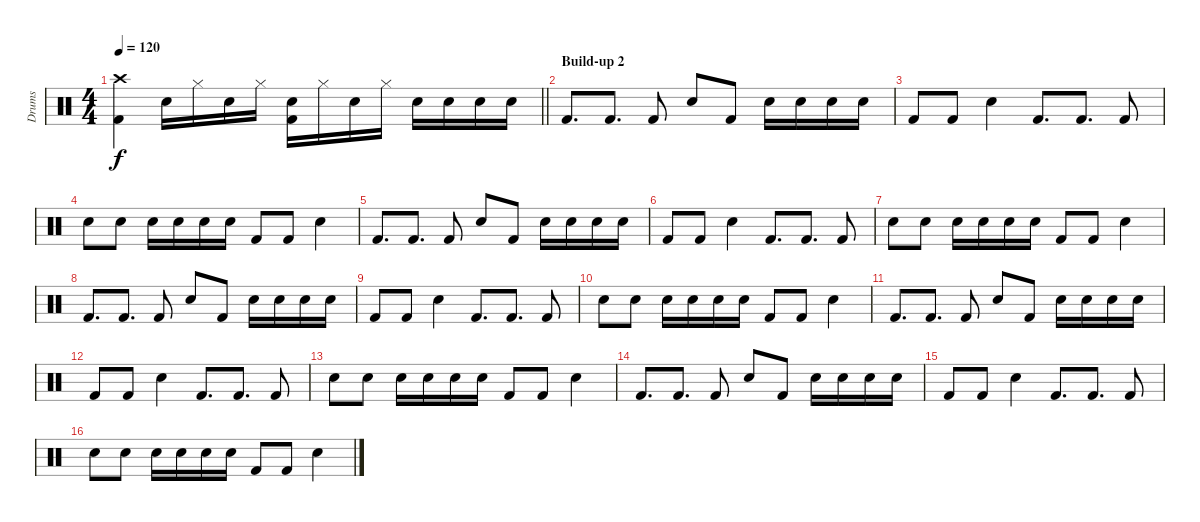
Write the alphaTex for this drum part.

\track ("Drums" "Drums") {instrument percussion}
\staff {score}
\articulation defaults
\ts (4 4)
\tempo 120
\clef neutral
\barLineRight lightlight
\ks c
("Kick (hit) 2" "Crash high (hit)").4{dy f} "Snare (hit) 2".16 "Hi-Hat (closed)".16 "Snare (hit) 2".16 "Hi-Hat (closed)".16 ("Snare (hit) 2" "Kick (hit) 2").16 "Hi-Hat (closed)".16 "Snare (hit) 2".16 "Hi-Hat (closed)".16 "Snare (hit) 2".16 "Electric Snare (hit)".16 "Snare (hit) 2".16 "Electric Snare (hit)".16 |
\section ("" "Build-up 2")
"Kick (hit) 2".8{d} "Kick (hit) 2".8{d} "Kick (hit) 2".8 "Electric Snare (hit)".8 "Kick (hit) 2".8 "Snare (hit) 2".16 "Snare (hit) 2".16 "Snare (hit) 2".16 "Snare (hit) 2".16 |
"Kick (hit) 2".8 "Kick (hit) 2".8 "Electric Snare (hit)".4 "Kick (hit) 2".8{d} "Kick (hit) 2".8{d} "Kick (hit) 2".8 |
"Electric Snare (hit)".8 "Electric Snare (hit)".8 "Snare (hit) 2".16 "Snare (hit) 2".16 "Snare (hit) 2".16 "Snare (hit) 2".16 "Kick (hit) 2".8 "Kick (hit) 2".8 "Electric Snare (hit)".4 |
"Kick (hit) 2".8{d} "Kick (hit) 2".8{d} "Kick (hit) 2".8 "Electric Snare (hit)".8 "Kick (hit) 2".8 "Snare (hit) 2".16 "Snare (hit) 2".16 "Snare (hit) 2".16 "Snare (hit) 2".16 |
"Kick (hit) 2".8 "Kick (hit) 2".8 "Electric Snare (hit)".4 "Kick (hit) 2".8{d} "Kick (hit) 2".8{d} "Kick (hit) 2".8 |
"Electric Snare (hit)".8 "Electric Snare (hit)".8 "Snare (hit) 2".16 "Snare (hit) 2".16 "Snare (hit) 2".16 "Snare (hit) 2".16 "Kick (hit) 2".8 "Kick (hit) 2".8 "Electric Snare (hit)".4 |
"Kick (hit) 2".8{d} "Kick (hit) 2".8{d} "Kick (hit) 2".8 "Electric Snare (hit)".8 "Kick (hit) 2".8 "Snare (hit) 2".16 "Snare (hit) 2".16 "Snare (hit) 2".16 "Snare (hit) 2".16 |
"Kick (hit) 2".8 "Kick (hit) 2".8 "Electric Snare (hit)".4 "Kick (hit) 2".8{d} "Kick (hit) 2".8{d} "Kick (hit) 2".8 |
"Electric Snare (hit)".8 "Electric Snare (hit)".8 "Snare (hit) 2".16 "Snare (hit) 2".16 "Snare (hit) 2".16 "Snare (hit) 2".16 "Kick (hit) 2".8 "Kick (hit) 2".8 "Electric Snare (hit)".4 |
"Kick (hit) 2".8{d} "Kick (hit) 2".8{d} "Kick (hit) 2".8 "Electric Snare (hit)".8 "Kick (hit) 2".8 "Snare (hit) 2".16 "Snare (hit) 2".16 "Snare (hit) 2".16 "Snare (hit) 2".16 |
"Kick (hit) 2".8 "Kick (hit) 2".8 "Electric Snare (hit)".4 "Kick (hit) 2".8{d} "Kick (hit) 2".8{d} "Kick (hit) 2".8 |
"Electric Snare (hit)".8 "Electric Snare (hit)".8 "Snare (hit) 2".16 "Snare (hit) 2".16 "Snare (hit) 2".16 "Snare (hit) 2".16 "Kick (hit) 2".8 "Kick (hit) 2".8 "Electric Snare (hit)".4 |
"Kick (hit) 2".8{d} "Kick (hit) 2".8{d} "Kick (hit) 2".8 "Electric Snare (hit)".8 "Kick (hit) 2".8 "Snare (hit) 2".16 "Snare (hit) 2".16 "Snare (hit) 2".16 "Snare (hit) 2".16 |
"Kick (hit) 2".8 "Kick (hit) 2".8 "Electric Snare (hit)".4 "Kick (hit) 2".8{d} "Kick (hit) 2".8{d} "Kick (hit) 2".8 |
"Electric Snare (hit)".8 "Electric Snare (hit)".8 "Snare (hit) 2".16 "Snare (hit) 2".16 "Snare (hit) 2".16 "Snare (hit) 2".16 "Kick (hit) 2".8 "Kick (hit) 2".8 "Electric Snare (hit)".4
